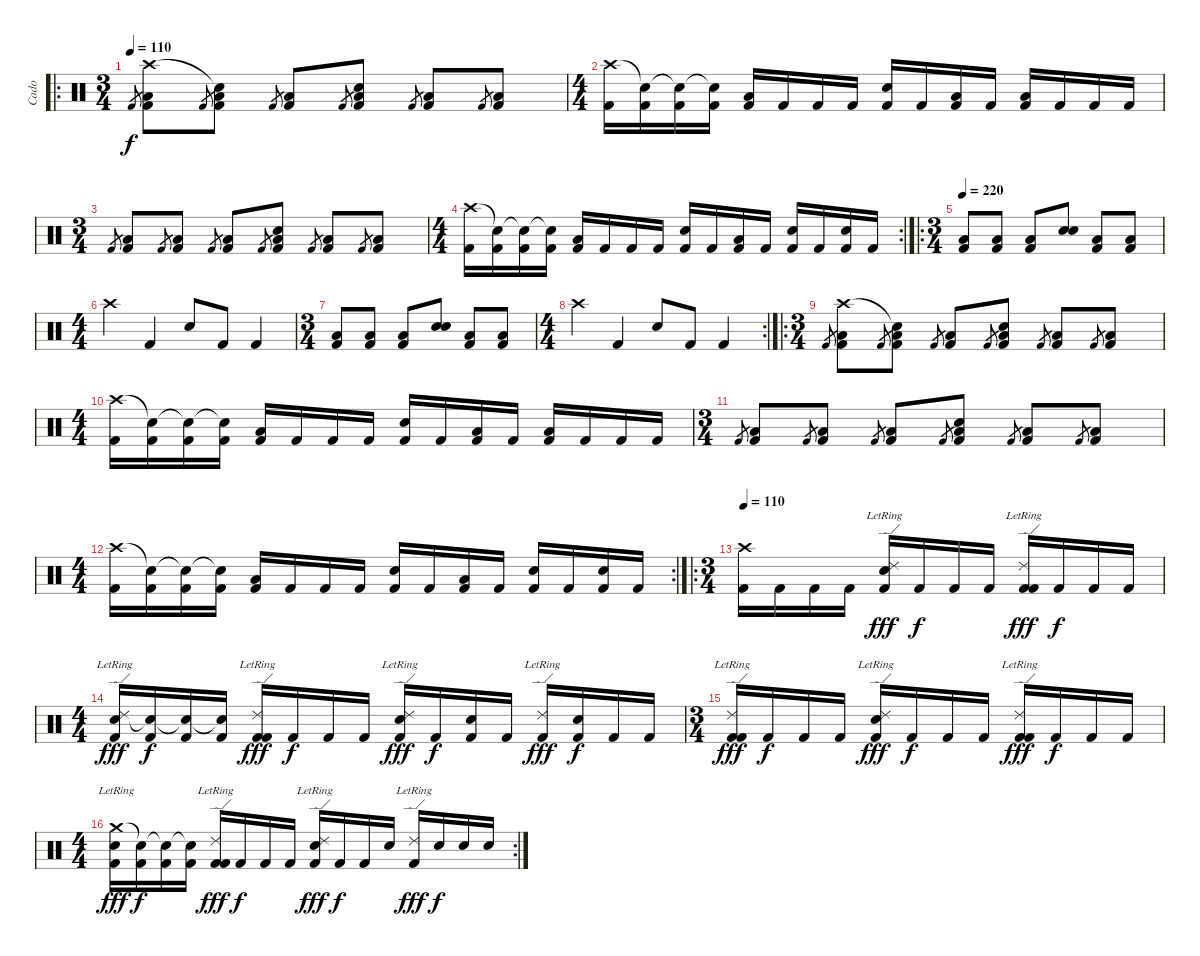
\track ("Cado" "Cado") {instrument percussion}
\staff {score}
\articulation defaults
\ro
\ts (3 4)
\tempo 110
\clef neutral
\ks c "Kick (hit) 2".8{gr dy f}
("Kick (hit) 2" "Low Floor Tom (hit)" "Crash high (hit)").8 "Kick (hit) 2".8{gr} ("Kick (hit) 2" "Low Floor Tom (hit)" "Snare (hit)"{t}).8 "Kick (hit) 2".8{gr} ("Kick (hit) 2" "Low Floor Tom (hit)").8 "Kick (hit) 2".8{gr} ("Snare (hit) 2" "Low Floor Tom (hit)" "Kick (hit) 2").8 "Kick (hit) 2".8{gr} ("Low Floor Tom (hit)" "Kick (hit) 2").8 "Kick (hit) 2".8{gr} ("Low Floor Tom (hit)" "Kick (hit) 2").8 |
\ts (4 4)
("Crash high (hit)" "Kick (hit) 2").16 ("Snare (hit)"{t} "Kick (hit) 2").16 ("Snare (hit)"{t} "Kick (hit) 2").16 ("Snare (hit)"{t} "Kick (hit) 2").16 ("Low Floor Tom (hit)" "Kick (hit) 2").16 "Kick (hit) 2".16 "Kick (hit) 2".16 "Kick (hit) 2".16 ("Snare (hit) 2" "Kick (hit) 2").16 "Kick (hit) 2".16 ("Low Floor Tom (hit)" "Kick (hit) 2").16 "Kick (hit) 2".16 ("Low Floor Tom (hit)" "Kick (hit) 2").16 "Kick (hit) 2".16 "Kick (hit) 2".16 "Kick (hit) 2".16 |
\ts (3 4)
"Kick (hit) 2".8{gr} ("Kick (hit) 2" "Low Floor Tom (hit)").8 "Kick (hit) 2".8{gr} ("Kick (hit) 2" "Low Floor Tom (hit)").8 "Kick (hit) 2".8{gr} ("Kick (hit) 2" "Low Floor Tom (hit)").8 "Kick (hit) 2".8{gr} ("Snare (hit) 2" "Low Floor Tom (hit)" "Kick (hit) 2").8 "Kick (hit) 2".8{gr} ("Low Floor Tom (hit)" "Kick (hit) 2").8 "Kick (hit) 2".8{gr} ("Low Floor Tom (hit)" "Kick (hit) 2").8 |
\rc 2
\ts (4 4)
("Crash high (hit)" "Kick (hit) 2").16 ("Snare (hit)"{t} "Kick (hit) 2").16 ("Snare (hit)"{t} "Kick (hit) 2").16 ("Snare (hit)"{t} "Kick (hit) 2").16 ("Low Floor Tom (hit)" "Kick (hit) 2").16 "Kick (hit) 2".16 "Kick (hit) 2".16 "Kick (hit) 2".16 ("Snare (hit) 2" "Kick (hit) 2").16 "Kick (hit) 2".16 ("Low Floor Tom (hit)" "Kick (hit) 2").16 "Kick (hit) 2".16 ("Snare (hit) 2" "Kick (hit) 2").16 "Kick (hit) 2".16 ("Snare (hit) 2" "Kick (hit) 2").16 "Kick (hit) 2".16 |
\ro
\ts (3 4)
\tempo 220
("Kick (hit) 2" "Low Floor Tom (hit)").8 ("Kick (hit) 2" "Low Floor Tom (hit)").8 ("Kick (hit) 2" "Low Floor Tom (hit)").8 ("Snare (hit) 2" "Electric Snare (hit)").8 ("Low Floor Tom (hit)" "Kick (hit) 2").8 ("Low Floor Tom (hit)" "Kick (hit) 2").8 |
\ts (4 4)
"Crash high (hit)".4 "Kick (hit) 2".4 "Snare (hit) 2".8 "Kick (hit) 2".8 "Kick (hit) 2".4 |
\ts (3 4)
("Kick (hit) 2" "Low Floor Tom (hit)").8 ("Kick (hit) 2" "Low Floor Tom (hit)").8 ("Kick (hit) 2" "Low Floor Tom (hit)").8 ("Snare (hit) 2" "Electric Snare (hit)").8 ("Low Floor Tom (hit)" "Kick (hit) 2").8 ("Low Floor Tom (hit)" "Kick (hit) 2").8 |
\rc 2
\ts (4 4)
"Crash high (hit)".4 "Kick (hit) 2".4 "Snare (hit) 2".8 "Kick (hit) 2".8 "Kick (hit) 2".4 |
\ro
\ts (3 4)
"Kick (hit) 2".8{gr} ("Kick (hit) 2" "Low Floor Tom (hit)" "Crash high (hit)").8 "Kick (hit) 2".8{gr} ("Kick (hit) 2" "Low Floor Tom (hit)" "Snare (hit)"{t}).8 "Kick (hit) 2".8{gr} ("Kick (hit) 2" "Low Floor Tom (hit)").8 "Kick (hit) 2".8{gr} ("Snare (hit) 2" "Low Floor Tom (hit)" "Kick (hit) 2").8 "Kick (hit) 2".8{gr} ("Low Floor Tom (hit)" "Kick (hit) 2").8 "Kick (hit) 2".8{gr} ("Low Floor Tom (hit)" "Kick (hit) 2").8 |
\ts (4 4)
("Crash high (hit)" "Kick (hit) 2").16 ("Snare (hit)"{t} "Kick (hit) 2").16 ("Snare (hit)"{t} "Kick (hit) 2").16 ("Snare (hit)"{t} "Kick (hit) 2").16 ("Low Floor Tom (hit)" "Kick (hit) 2").16 "Kick (hit) 2".16 "Kick (hit) 2".16 "Kick (hit) 2".16 ("Snare (hit) 2" "Kick (hit) 2").16 "Kick (hit) 2".16 ("Low Floor Tom (hit)" "Kick (hit) 2").16 "Kick (hit) 2".16 ("Low Floor Tom (hit)" "Kick (hit) 2").16 "Kick (hit) 2".16 "Kick (hit) 2".16 "Kick (hit) 2".16 |
\ts (3 4)
"Kick (hit) 2".8{gr} ("Kick (hit) 2" "Low Floor Tom (hit)").8 "Kick (hit) 2".8{gr} ("Kick (hit) 2" "Low Floor Tom (hit)").8 "Kick (hit) 2".8{gr} ("Kick (hit) 2" "Low Floor Tom (hit)").8 "Kick (hit) 2".8{gr} ("Snare (hit) 2" "Low Floor Tom (hit)" "Kick (hit) 2").8 "Kick (hit) 2".8{gr} ("Low Floor Tom (hit)" "Kick (hit) 2").8 "Kick (hit) 2".8{gr} ("Low Floor Tom (hit)" "Kick (hit) 2").8 |
\rc 2
\ts (4 4)
("Crash high (hit)" "Kick (hit) 2").16 ("Snare (hit)"{t} "Kick (hit) 2").16 ("Snare (hit)"{t} "Kick (hit) 2").16 ("Snare (hit)"{t} "Kick (hit) 2").16 ("Low Floor Tom (hit)" "Kick (hit) 2").16 "Kick (hit) 2".16 "Kick (hit) 2".16 "Kick (hit) 2".16 ("Snare (hit) 2" "Kick (hit) 2").16 "Kick (hit) 2".16 ("Low Floor Tom (hit)" "Kick (hit) 2").16 "Kick (hit) 2".16 ("Snare (hit) 2" "Kick (hit) 2").16 "Kick (hit) 2".16 ("Snare (hit) 2" "Kick (hit) 2").16 "Kick (hit) 2".16 |
\ro
\ts (3 4)
\tempo 110
("Crash high (hit)" "Kick (hit) 2").16 "Kick (hit) 2".16 "Kick (hit) 2".16 "Kick (hit) 2".16 ("Ride (edge) 2"{lr} "Snare (hit) 2" "Kick (hit) 2").16{dy fff} "Kick (hit) 2".16{dy f} "Kick (hit) 2".16 "Kick (hit) 2".16 ("Ride (edge) 2"{lr} "Kick (hit) 2" "Kick (hit) 2").16{dy fff} "Kick (hit) 2".16{dy f} "Kick (hit) 2".16 "Kick (hit) 2".16 |
\ts (4 4)
("Ride (edge) 2"{lr} "Snare (hit) 2" "Kick (hit) 2").16{dy fff} ("Snare (hit)"{t} "Kick (hit) 2").16{dy f} ("Snare (hit)"{t} "Kick (hit) 2").16 ("Snare (hit)"{t} "Kick (hit) 2").16 ("Ride (edge) 2"{lr} "Kick (hit) 2" "Kick (hit) 2").16{dy fff} "Kick (hit) 2".16{dy f} "Kick (hit) 2".16 "Kick (hit) 2".16 ("Ride (edge) 2"{lr} "Snare (hit) 2" "Kick (hit) 2").16{dy fff} "Kick (hit) 2".16{dy f} ("Snare (hit) 2" "Kick (hit) 2").16 "Kick (hit) 2".16 ("Ride (edge) 2"{lr} "Kick (hit) 2").16{dy fff} ("Snare (hit) 2" "Kick (hit) 2").16{dy f} "Kick (hit) 2".16 "Kick (hit) 2".16 |
\ts (3 4)
("Ride (edge) 2"{lr} "Kick (hit) 2" "Kick (hit) 2").16{dy fff} "Kick (hit) 2".16{dy f} "Kick (hit) 2".16 "Kick (hit) 2".16 ("Ride (edge) 2"{lr} "Snare (hit) 2" "Kick (hit) 2").16{dy fff} "Kick (hit) 2".16{dy f} "Kick (hit) 2".16 "Kick (hit) 2".16 ("Ride (edge) 2"{lr} "Kick (hit) 2" "Kick (hit) 2").16{dy fff} "Kick (hit) 2".16{dy f} "Kick (hit) 2".16 "Kick (hit) 2".16 |
\rc 2
\ts (4 4)
("Crash medium (hit)"{lr} "Snare (hit) 2" "Kick (hit) 2").16{dy fff} ("Snare (hit)"{t} "Kick (hit) 2").16{dy f} ("Snare (hit)"{t} "Kick (hit) 2").16 ("Snare (hit)"{t} "Kick (hit) 2").16 ("Ride (edge) 2"{lr} "Kick (hit) 2" "Kick (hit) 2").16{dy fff} "Kick (hit) 2".16{dy f} "Kick (hit) 2".16 "Kick (hit) 2".16 ("Ride (edge) 2"{lr} "Snare (hit) 2" "Kick (hit) 2").16{dy fff} "Kick (hit) 2".16{dy f} "Kick (hit) 2".16 "Snare (hit) 2".16 ("Ride (edge) 2"{lr} "Kick (hit) 2").16{dy fff} "Snare (hit) 2".16{dy f} "Snare (hit) 2".16 "Snare (hit) 2".16
